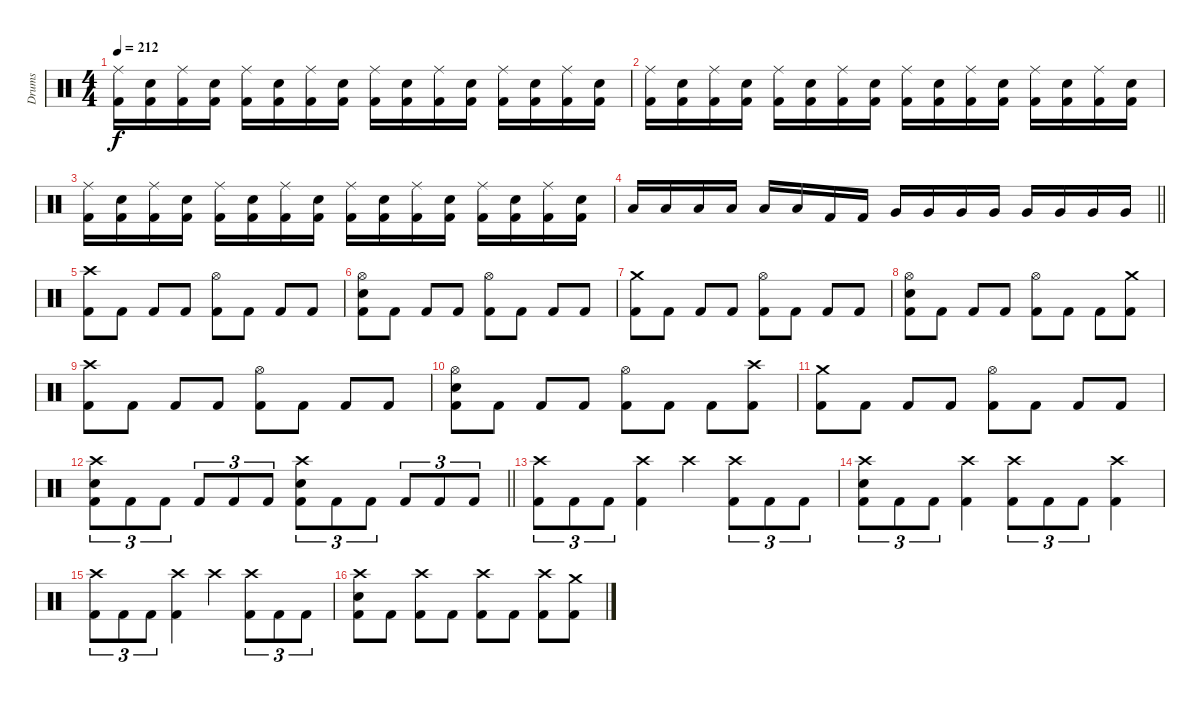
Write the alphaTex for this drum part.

\track ("Drums" "Drums") {instrument percussion}
\staff {score}
\articulation defaults
\ts (4 4)
\tempo 212
\clef neutral
\ks c
("Ride (middle)" "Kick (hit) 2").16{dy f} ("Electric Snare (hit)" "Kick (hit) 2").16 ("Ride (middle)" "Kick (hit) 2").16 ("Electric Snare (hit)" "Kick (hit) 2").16 ("Ride (middle)" "Kick (hit) 2").16 ("Electric Snare (hit)" "Kick (hit) 2").16 ("Ride (middle)" "Kick (hit) 2").16 ("Electric Snare (hit)" "Kick (hit) 2").16 ("Ride (middle)" "Kick (hit) 2").16 ("Electric Snare (hit)" "Kick (hit) 2").16 ("Ride (middle)" "Kick (hit) 2").16 ("Electric Snare (hit)" "Kick (hit) 2").16 ("Ride (middle)" "Kick (hit) 2").16 ("Electric Snare (hit)" "Kick (hit) 2").16 ("Ride (middle)" "Kick (hit) 2").16 ("Electric Snare (hit)" "Kick (hit) 2").16 |
("Ride (middle)" "Kick (hit) 2").16 ("Electric Snare (hit)" "Kick (hit) 2").16 ("Ride (middle)" "Kick (hit) 2").16 ("Electric Snare (hit)" "Kick (hit) 2").16 ("Ride (middle)" "Kick (hit) 2").16 ("Electric Snare (hit)" "Kick (hit) 2").16 ("Ride (middle)" "Kick (hit) 2").16 ("Electric Snare (hit)" "Kick (hit) 2").16 ("Ride (middle)" "Kick (hit) 2").16 ("Electric Snare (hit)" "Kick (hit) 2").16 ("Ride (middle)" "Kick (hit) 2").16 ("Electric Snare (hit)" "Kick (hit) 2").16 ("Ride (middle)" "Kick (hit) 2").16 ("Electric Snare (hit)" "Kick (hit) 2").16 ("Ride (middle)" "Kick (hit) 2").16 ("Electric Snare (hit)" "Kick (hit) 2").16 |
("Ride (middle)" "Kick (hit) 2").16 ("Electric Snare (hit)" "Kick (hit) 2").16 ("Ride (middle)" "Kick (hit) 2").16 ("Electric Snare (hit)" "Kick (hit) 2").16 ("Ride (middle)" "Kick (hit) 2").16 ("Electric Snare (hit)" "Kick (hit) 2").16 ("Ride (middle)" "Kick (hit) 2").16 ("Electric Snare (hit)" "Kick (hit) 2").16 ("Ride (middle)" "Kick (hit) 2").16 ("Electric Snare (hit)" "Kick (hit) 2").16 ("Ride (middle)" "Kick (hit) 2").16 ("Electric Snare (hit)" "Kick (hit) 2").16 ("Ride (middle)" "Kick (hit) 2").16 ("Electric Snare (hit)" "Kick (hit) 2").16 ("Ride (middle)" "Kick (hit) 2").16 ("Electric Snare (hit)" "Kick (hit) 2").16 |
\barLineRight lightlight "Low Tom (hit)".16 "Low Tom (hit)".16 "Low Tom (hit)".16 "Low Tom (hit)".16 "Low Tom (hit)".16 "Low Tom (hit)".16 "Kick (hit) 2".16 "Kick (hit) 2".16 "Very Low Tom (hit)".16 "Very Low Tom (hit)".16 "Very Low Tom (hit)".16 "Very Low Tom (hit)".16 "Very Low Tom (hit)".16 "Very Low Tom (hit)".16 "Very Low Tom (hit)".16 "Very Low Tom (hit)".16
|
("Crash high (hit)" "Kick (hit) 2").8 "Kick (hit) 2".8 "Kick (hit) 2".8 "Kick (hit) 2".8 ("Hi-Hat (open)" "Kick (hit) 2").8 "Kick (hit) 2".8 "Kick (hit) 2".8 "Kick (hit) 2".8 |
("Hi-Hat (open)" "Electric Snare (hit)" "Kick (hit) 2").8 "Kick (hit) 2".8 "Kick (hit) 2".8 "Kick (hit) 2".8 ("Hi-Hat (open)" "Kick (hit) 2").8 "Kick (hit) 2".8 "Kick (hit) 2".8 "Kick (hit) 2".8 |
("Crash medium (hit)" "Kick (hit) 2").8 "Kick (hit) 2".8 "Kick (hit) 2".8 "Kick (hit) 2".8 ("Hi-Hat (open)" "Kick (hit) 2").8 "Kick (hit) 2".8 "Kick (hit) 2".8 "Kick (hit) 2".8 |
("Hi-Hat (open)" "Electric Snare (hit)" "Kick (hit) 2").8 "Kick (hit) 2".8 "Kick (hit) 2".8 "Kick (hit) 2".8 ("Hi-Hat (open)" "Kick (hit) 2").8 "Kick (hit) 2".8 "Kick (hit) 2".8 ("Crash medium (hit)" "Kick (hit) 2").8 |
("Crash high (hit)" "Kick (hit) 2").8 "Kick (hit) 2".8 "Kick (hit) 2".8 "Kick (hit) 2".8 ("Hi-Hat (open)" "Kick (hit) 2").8 "Kick (hit) 2".8 "Kick (hit) 2".8 "Kick (hit) 2".8 |
("Hi-Hat (open)" "Electric Snare (hit)" "Kick (hit) 2").8 "Kick (hit) 2".8 "Kick (hit) 2".8 "Kick (hit) 2".8 ("Hi-Hat (open)" "Kick (hit) 2").8 "Kick (hit) 2".8 "Kick (hit) 2".8 ("Crash high (hit)" "Kick (hit) 2").8 |
("Crash medium (hit)" "Kick (hit) 2").8 "Kick (hit) 2".8 "Kick (hit) 2".8 "Kick (hit) 2".8 ("Hi-Hat (open)" "Kick (hit) 2").8 "Kick (hit) 2".8 "Kick (hit) 2".8 "Kick (hit) 2".8 |
\barLineRight lightlight
("Crash high (hit)" "Electric Snare (hit)" "Kick (hit) 2").8{tu (3 2)} "Kick (hit) 2".8{tu (3 2)} "Kick (hit) 2".8{tu (3 2)} "Kick (hit) 2".8{tu (3 2)} "Kick (hit) 2".8{tu (3 2)} "Kick (hit) 2".8{tu (3 2)} ("Crash high (hit)" "Electric Snare (hit)" "Kick (hit) 2").8{tu (3 2)} "Kick (hit) 2".8{tu (3 2)} "Kick (hit) 2".8{tu (3 2)} "Kick (hit) 2".8{tu (3 2)} "Kick (hit) 2".8{tu (3 2)} "Kick (hit) 2".8{tu (3 2)} |
("Crash high (hit)" "Kick (hit) 2").8{tu (3 2)} "Kick (hit) 2".8{tu (3 2)} "Kick (hit) 2".8{tu (3 2)} ("Crash high (hit)" "Kick (hit) 2").4 "Crash high (hit)".4 ("Crash high (hit)" "Kick (hit) 2").8{tu (3 2)} "Kick (hit) 2".8{tu (3 2)} "Kick (hit) 2".8{tu (3 2)} |
("Crash high (hit)" "Electric Snare (hit)" "Kick (hit) 2").8{tu (3 2)} "Kick (hit) 2".8{tu (3 2)} "Kick (hit) 2".8{tu (3 2)} ("Crash high (hit)" "Kick (hit) 2").4 ("Crash high (hit)" "Kick (hit) 2").8{tu (3 2)} "Kick (hit) 2".8{tu (3 2)} "Kick (hit) 2".8{tu (3 2)} ("Crash high (hit)" "Kick (hit) 2").4 |
("Crash high (hit)" "Kick (hit) 2").8{tu (3 2)} "Kick (hit) 2".8{tu (3 2)} "Kick (hit) 2".8{tu (3 2)} ("Crash high (hit)" "Kick (hit) 2").4 "Crash high (hit)".4 ("Crash high (hit)" "Kick (hit) 2").8{tu (3 2)} "Kick (hit) 2".8{tu (3 2)} "Kick (hit) 2".8{tu (3 2)} |
("Crash high (hit)" "Electric Snare (hit)" "Kick (hit) 2").8 "Kick (hit) 2".8 ("Crash high (hit)" "Kick (hit) 2").8 "Kick (hit) 2".8 ("Crash high (hit)" "Kick (hit) 2").8 "Kick (hit) 2".8 ("Crash high (hit)" "Kick (hit) 2").8 ("Crash medium (hit)" "Kick (hit) 2").8
